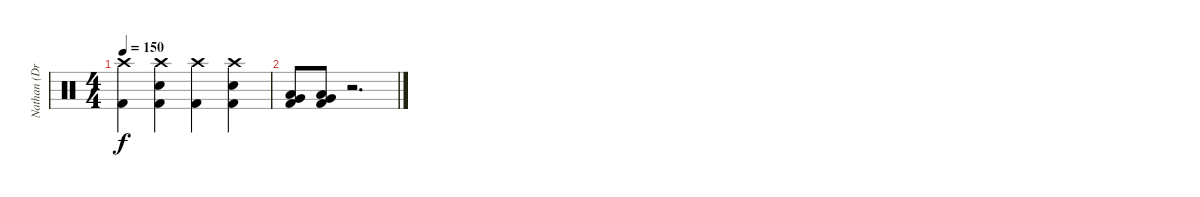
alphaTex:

\track ("Nathan (Drums)" "Nathan (Dr") {instrument percussion}
\staff {score}
\articulation defaults
\ts (4 4)
\tempo 150
\clef neutral
\ks c
("Crash high (hit)" "Kick (hit) 2").4{dy f} ("Crash high (hit)" "Electric Snare (hit)" "Kick (hit) 2").4 ("Crash high (hit)" "Kick (hit) 2").4 ("Crash high (hit)" "Electric Snare (hit)" "Kick (hit) 2").4 |
("Very Low Tom (hit)" "Low Tom (hit)" "Kick (hit) 2").8 ("Very Low Tom (hit)" "Low Tom (hit)" "Kick (hit) 2").8 r.2{d}
